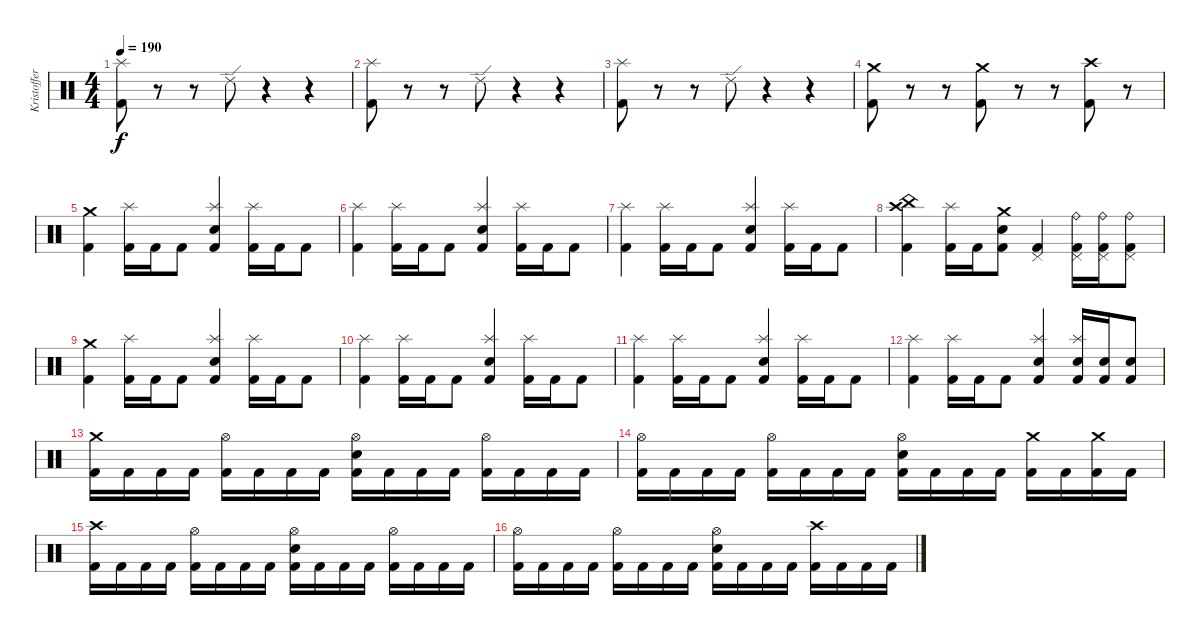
\track ("Kristoffer (Drums)" "Kristoffer") {instrument percussion}
\staff {score}
\articulation defaults
\ts (4 4)
\tempo 190
\clef neutral
\ks c
("Kick (hit) 2" "Splash (hit)").8{dy f} r.8 r.8 "Ride (edge) 2".8 r.4 r.4 |
("Kick (hit) 2" "Splash (hit)").8 r.8 r.8 "Ride (edge) 2".8 r.4 r.4 |
("Kick (hit) 2" "Splash (hit)").8 r.8 r.8 "Ride (edge) 2".8 r.4 r.4 |
("Kick (hit) 2" "Crash medium (hit)").8 r.8 r.8 ("Kick (hit) 2" "Crash medium (hit)").8 r.8 r.8 ("Kick (hit) 2" "Crash high (hit)").8 r.8 |
("Kick (hit) 2" "Crash medium (hit)").4 ("Kick (hit) 2" "Splash (hit)").16 "Kick (hit) 2".16 "Kick (hit) 2".8 ("Kick (hit) 2" "Electric Snare (hit)" "Splash (hit)").4 ("Kick (hit) 2" "Splash (hit)").16 "Kick (hit) 2".16 "Kick (hit) 2".8 |
("Kick (hit) 2" "Splash (hit)").4 ("Kick (hit) 2" "Splash (hit)").16 "Kick (hit) 2".16 "Kick (hit) 2".8 ("Kick (hit) 2" "Electric Snare (hit)" "Splash (hit)").4 ("Kick (hit) 2" "Splash (hit)").16 "Kick (hit) 2".16 "Kick (hit) 2".8 |
("Kick (hit) 2" "Splash (hit)").4 ("Kick (hit) 2" "Splash (hit)").16 "Kick (hit) 2".16 "Kick (hit) 2".8 ("Kick (hit) 2" "Electric Snare (hit)" "Splash (hit)").4 ("Kick (hit) 2" "Splash (hit)").16 "Kick (hit) 2".16 "Kick (hit) 2".8 |
("Kick (hit) 2" "China (hit)" "Crash high (hit)").4 ("Kick (hit) 2" "Splash (hit)").16 "Kick (hit) 2".16 ("Kick (hit) 2" "Electric Snare (hit)" "Crash medium (hit)").8 ("Kick (hit) 2" "Pedal Hi-Hat (hit)").4 ("Kick (hit) 2" "Ride (bell)" "Pedal Hi-Hat (hit)").16 ("Kick (hit) 2" "Ride (bell)" "Pedal Hi-Hat (hit)").16 ("Kick (hit) 2" "Ride (bell)" "Pedal Hi-Hat (hit)").8 |
("Kick (hit) 2" "Crash medium (hit)").4 ("Kick (hit) 2" "Splash (hit)").16 "Kick (hit) 2".16 "Kick (hit) 2".8 ("Kick (hit) 2" "Electric Snare (hit)" "Splash (hit)").4 ("Kick (hit) 2" "Splash (hit)").16 "Kick (hit) 2".16 "Kick (hit) 2".8 |
("Kick (hit) 2" "Splash (hit)").4 ("Kick (hit) 2" "Splash (hit)").16 "Kick (hit) 2".16 "Kick (hit) 2".8 ("Kick (hit) 2" "Electric Snare (hit)" "Splash (hit)").4 ("Kick (hit) 2" "Splash (hit)").16 "Kick (hit) 2".16 "Kick (hit) 2".8 |
("Kick (hit) 2" "Splash (hit)").4 ("Kick (hit) 2" "Splash (hit)").16 "Kick (hit) 2".16 "Kick (hit) 2".8 ("Kick (hit) 2" "Electric Snare (hit)" "Splash (hit)").4 ("Kick (hit) 2" "Splash (hit)").16 "Kick (hit) 2".16 "Kick (hit) 2".8 |
("Kick (hit) 2" "Splash (hit)").4 ("Kick (hit) 2" "Splash (hit)").16 "Kick (hit) 2".16 "Kick (hit) 2".8 ("Kick (hit) 2" "Electric Snare (hit)" "Splash (hit)").4 ("Kick (hit) 2" "Electric Snare (hit)" "Splash (hit)").16 ("Kick (hit) 2" "Electric Snare (hit)").16 ("Kick (hit) 2" "Electric Snare (hit)").8 |
("Kick (hit) 2" "Crash medium (hit)").16 "Kick (hit) 2".16 "Kick (hit) 2".16 "Kick (hit) 2".16 ("Kick (hit) 2" "Hi-Hat (open)").16 "Kick (hit) 2".16 "Kick (hit) 2".16 "Kick (hit) 2".16 ("Kick (hit) 2" "Electric Snare (hit)" "Hi-Hat (open)").16 "Kick (hit) 2".16 "Kick (hit) 2".16 "Kick (hit) 2".16 ("Kick (hit) 2" "Hi-Hat (open)").16 "Kick (hit) 2".16 "Kick (hit) 2".16 "Kick (hit) 2".16 |
("Kick (hit) 2" "Hi-Hat (open)").16 "Kick (hit) 2".16 "Kick (hit) 2".16 "Kick (hit) 2".16 ("Kick (hit) 2" "Hi-Hat (open)").16 "Kick (hit) 2".16 "Kick (hit) 2".16 "Kick (hit) 2".16 ("Kick (hit) 2" "Electric Snare (hit)" "Hi-Hat (open)").16 "Kick (hit) 2".16 "Kick (hit) 2".16 "Kick (hit) 2".16 ("Kick (hit) 2" "Crash medium (hit)").16 "Kick (hit) 2".16 ("Kick (hit) 2" "Crash medium (hit)").16 "Kick (hit) 2".16 |
("Kick (hit) 2" "Crash high (hit)").16 "Kick (hit) 2".16 "Kick (hit) 2".16 "Kick (hit) 2".16 ("Kick (hit) 2" "Hi-Hat (open)").16 "Kick (hit) 2".16 "Kick (hit) 2".16 "Kick (hit) 2".16 ("Kick (hit) 2" "Electric Snare (hit)" "Hi-Hat (open)").16 "Kick (hit) 2".16 "Kick (hit) 2".16 "Kick (hit) 2".16 ("Kick (hit) 2" "Hi-Hat (open)").16 "Kick (hit) 2".16 "Kick (hit) 2".16 "Kick (hit) 2".16 |
("Kick (hit) 2" "Hi-Hat (open)").16 "Kick (hit) 2".16 "Kick (hit) 2".16 "Kick (hit) 2".16 ("Kick (hit) 2" "Hi-Hat (open)").16 "Kick (hit) 2".16 "Kick (hit) 2".16 "Kick (hit) 2".16 ("Kick (hit) 2" "Electric Snare (hit)" "Hi-Hat (open)").16 "Kick (hit) 2".16 "Kick (hit) 2".16 "Kick (hit) 2".16 ("Kick (hit) 2" "Crash high (hit)").16 "Kick (hit) 2".16 "Kick (hit) 2".16 "Kick (hit) 2".16
